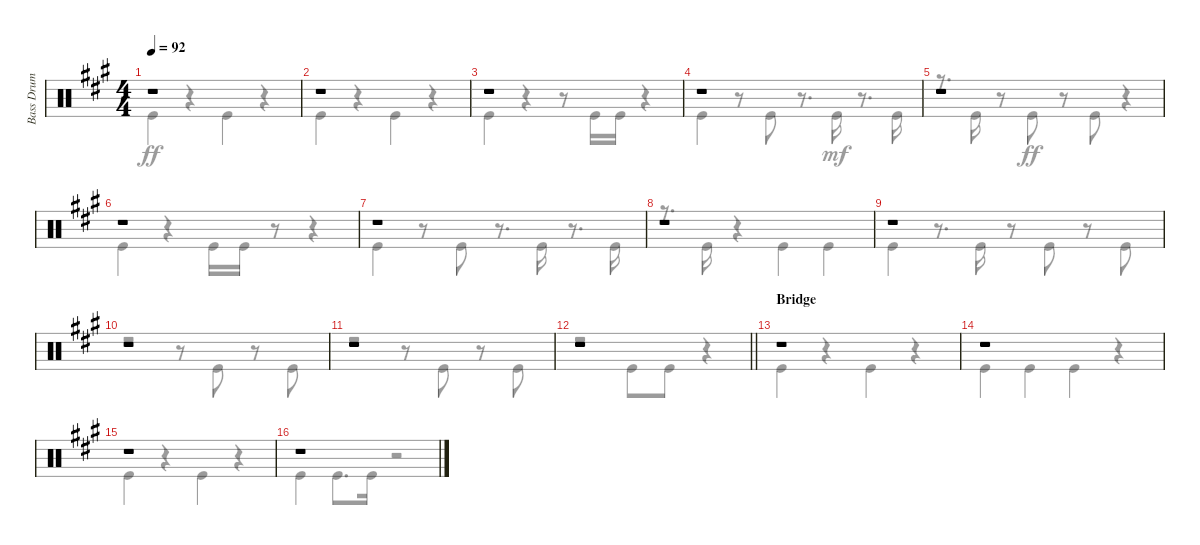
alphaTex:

\track ("Bass Drum" "Bass Drum") {instrument percussion}
\staff {score}
\articulation defaults
\voice
\ts (4 4)
\tempo 92
\clef neutral
\ks f#minor
r.1{dy f} |
r.1 |
r.1 |
r.1 |
r.1 |
r.1 |
r.1 |
r.1 |
r.1 |
r.1 |
r.1 |
\barLineRight lightlight
r.1 |
\section ("" "Bridge")
r.1 |
r.1 |
r.1 |
r.1
\voice
\clef neutral
\ottava regular
\simile none
\ks f#minor "Kick (hit)".4{dy ff}
r.4 "Kick (hit)".4 r.4 |
"Kick (hit)".4 r.4 "Kick (hit)".4 r.4 |
"Kick (hit)".4 r.4 r.8 "Kick (hit)".16 "Kick (hit)".16 r.4 |
"Kick (hit)".4 r.8 "Kick (hit)".8 r.8{d} "Kick (hit)".16{dy mf} r.8{d} "Kick (hit)".16 |
r.8{d} "Kick (hit)".16 r.8 "Kick (hit)".8{dy ff} r.8 "Kick (hit)".8 r.4 |
"Kick (hit)".4 r.4 "Kick (hit)".16 "Kick (hit)".16 r.8 r.4 |
"Kick (hit)".4 r.8 "Kick (hit)".8 r.8{d} "Kick (hit)".16 r.8{d} "Kick (hit)".16 |
r.8{d} "Kick (hit)".16 r.4 "Kick (hit)".4 "Kick (hit)".4 |
"Kick (hit)".4 r.8{d} "Kick (hit)".16 r.8 "Kick (hit)".8 r.8 "Kick (hit)".8 |
r.2 r.8 "Kick (hit)".8 r.8 "Kick (hit)".8 |
r.2 r.8 "Kick (hit)".8 r.8 "Kick (hit)".8 |
\barLineRight lightlight
r.2 "Kick (hit)".8 "Kick (hit)".8 r.4 |
"Kick (hit)".4 r.4 "Kick (hit)".4 r.4 |
"Kick (hit)".4 "Kick (hit)".4 "Kick (hit)".4 r.4 |
"Kick (hit)".4 r.4 "Kick (hit)".4 r.4 |
"Kick (hit)".4 "Kick (hit)".8{d} "Kick (hit)".16 r.2
